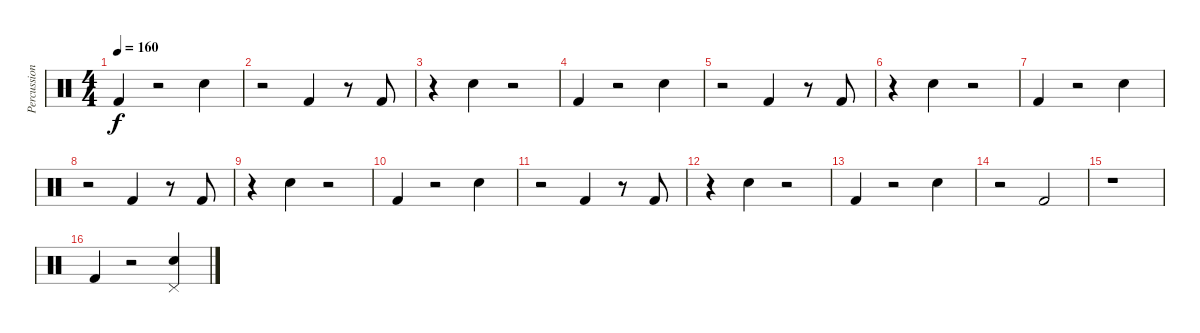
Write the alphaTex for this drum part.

\track ("Percussions" "Percussion") {instrument percussion}
\staff {score}
\articulation defaults
\ts (4 4)
\tempo 160
\clef neutral
\ks c "Kick (hit) 2".4{dy f}
r.2 "Hand Clap (hit)".4 |
r.2 "Kick (hit) 2".4 r.8 "Kick (hit) 2".8 |
r.4 "Hand Clap (hit)".4 r.2 |
"Kick (hit) 2".4 r.2 "Hand Clap (hit)".4 |
r.2 "Kick (hit) 2".4 r.8 "Kick (hit) 2".8 |
r.4 "Hand Clap (hit)".4 r.2 |
"Kick (hit) 2".4 r.2 "Hand Clap (hit)".4 |
r.2 "Kick (hit) 2".4 r.8 "Kick (hit) 2".8 |
r.4 "Hand Clap (hit)".4 r.2 |
"Kick (hit) 2".4 r.2 "Hand Clap (hit)".4 |
r.2 "Kick (hit) 2".4 r.8 "Kick (hit) 2".8 |
r.4 "Hand Clap (hit)".4 r.2 |
"Kick (hit) 2".4 r.2 "Hand Clap (hit)".4 |
r.2 "Kick (hit) 2".2 |
r.1 |
"Kick (hit) 2".4 r.2 ("Pedal Hi-Hat (hit)" "Electric Snare (hit)").4
